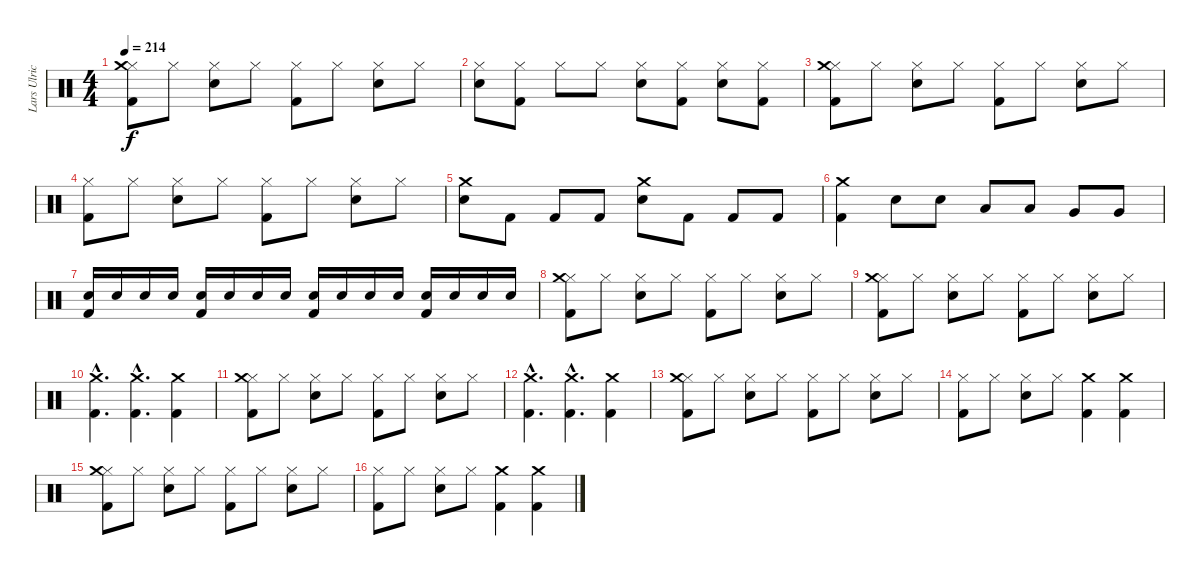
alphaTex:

\track ("Lars Ulrich" "Lars Ulric") {instrument percussion}
\staff {score}
\articulation defaults
\ts (4 4)
\tempo 214
\clef neutral
\ks c
("Hi-Hat (closed)" "Kick (hit) 2" "Crash medium (hit)").8{dy f} "Hi-Hat (closed)".8 ("Hi-Hat (closed)" "Snare (hit) 2").8 "Hi-Hat (closed)".8 ("Hi-Hat (closed)" "Kick (hit) 2").8 "Hi-Hat (closed)".8 ("Hi-Hat (closed)" "Snare (hit) 2").8 "Hi-Hat (closed)".8 |
("Hi-Hat (closed)" "Snare (hit) 2").8 ("Hi-Hat (closed)" "Kick (hit) 2").8 "Hi-Hat (closed)".8 "Hi-Hat (closed)".8 ("Hi-Hat (closed)" "Snare (hit) 2").8 ("Hi-Hat (closed)" "Kick (hit) 2").8 ("Hi-Hat (closed)" "Snare (hit) 2").8 ("Hi-Hat (closed)" "Kick (hit) 2").8 |
("Hi-Hat (closed)" "Kick (hit) 2" "Crash medium (hit)").8 "Hi-Hat (closed)".8 ("Hi-Hat (closed)" "Snare (hit) 2").8 "Hi-Hat (closed)".8 ("Hi-Hat (closed)" "Kick (hit) 2").8 "Hi-Hat (closed)".8 ("Hi-Hat (closed)" "Snare (hit) 2").8 "Hi-Hat (closed)".8 |
("Hi-Hat (closed)" "Kick (hit) 2").8 "Hi-Hat (closed)".8 ("Hi-Hat (closed)" "Snare (hit) 2").8 "Hi-Hat (closed)".8 ("Hi-Hat (closed)" "Kick (hit) 2").8 "Hi-Hat (closed)".8 ("Hi-Hat (closed)" "Snare (hit) 2").8 "Hi-Hat (closed)".8 |
("Snare (hit) 2" "Crash medium (hit)").8 "Kick (hit) 2".8 "Kick (hit) 2".8 "Kick (hit) 2".8 ("Snare (hit) 2" "Crash medium (hit)").8 "Kick (hit) 2".8 "Kick (hit) 2".8 "Kick (hit) 2".8 |
("Kick (hit) 2" "Crash medium (hit)").4 "Snare (hit) 2".8 "Snare (hit) 2".8 "Low Tom (hit)".8 "Low Tom (hit)".8 "Very Low Tom (hit)".8 "Very Low Tom (hit)".8 |
("Snare (hit) 2" "Kick (hit) 2").16{volume 7} "Snare (hit) 2".16 "Snare (hit) 2".16 "Snare (hit) 2".16 ("Snare (hit) 2" "Kick (hit) 2").16{volume 9} "Snare (hit) 2".16 "Snare (hit) 2".16 "Snare (hit) 2".16 ("Snare (hit) 2" "Kick (hit) 2").16{volume 11} "Snare (hit) 2".16 "Snare (hit) 2".16 "Snare (hit) 2".16 ("Snare (hit) 2" "Kick (hit) 2").16{volume 13} "Snare (hit) 2".16 "Snare (hit) 2".16 "Snare (hit) 2".16 |
("Hi-Hat (closed)" "Kick (hit) 2" "Crash medium (hit)").8 "Hi-Hat (closed)".8 ("Hi-Hat (closed)" "Snare (hit) 2").8 "Hi-Hat (closed)".8 ("Hi-Hat (closed)" "Kick (hit) 2").8 "Hi-Hat (closed)".8 ("Hi-Hat (closed)" "Snare (hit) 2").8 "Hi-Hat (closed)".8 |
("Hi-Hat (closed)" "Kick (hit) 2" "Crash medium (hit)").8 "Hi-Hat (closed)".8 ("Hi-Hat (closed)" "Snare (hit) 2").8 "Hi-Hat (closed)".8 ("Hi-Hat (closed)" "Kick (hit) 2").8 "Hi-Hat (closed)".8 ("Hi-Hat (closed)" "Snare (hit) 2").8 "Hi-Hat (closed)".8 |
("Kick (hit) 2"{hac} "Crash medium (hit)"{hac}).4{d} ("Crash medium (hit)"{hac} "Kick (hit) 2"{hac}).4{d} ("Kick (hit) 2" "Crash medium (hit)").4 |
("Hi-Hat (closed)" "Kick (hit) 2" "Crash medium (hit)").8 "Hi-Hat (closed)".8 ("Hi-Hat (closed)" "Snare (hit) 2").8 "Hi-Hat (closed)".8 ("Hi-Hat (closed)" "Kick (hit) 2").8 "Hi-Hat (closed)".8 ("Hi-Hat (closed)" "Snare (hit) 2").8 "Hi-Hat (closed)".8 |
("Kick (hit) 2"{hac} "Crash medium (hit)"{hac}).4{d} ("Crash medium (hit)"{hac} "Kick (hit) 2"{hac}).4{d} ("Kick (hit) 2" "Crash medium (hit)").4 |
("Hi-Hat (closed)" "Kick (hit) 2" "Crash medium (hit)").8 "Hi-Hat (closed)".8 ("Hi-Hat (closed)" "Snare (hit) 2").8 "Hi-Hat (closed)".8 ("Hi-Hat (closed)" "Kick (hit) 2").8 "Hi-Hat (closed)".8 ("Hi-Hat (closed)" "Snare (hit) 2").8 "Hi-Hat (closed)".8 |
("Hi-Hat (closed)" "Kick (hit) 2").8 "Hi-Hat (closed)".8 ("Hi-Hat (closed)" "Snare (hit) 2").8 "Hi-Hat (closed)".8 ("Kick (hit) 2" "Crash medium (hit)").4 ("Kick (hit) 2" "Crash medium (hit)").4 |
("Hi-Hat (closed)" "Kick (hit) 2" "Crash medium (hit)").8 "Hi-Hat (closed)".8 ("Hi-Hat (closed)" "Snare (hit) 2").8 "Hi-Hat (closed)".8 ("Hi-Hat (closed)" "Kick (hit) 2").8 "Hi-Hat (closed)".8 ("Hi-Hat (closed)" "Snare (hit) 2").8 "Hi-Hat (closed)".8 |
("Hi-Hat (closed)" "Kick (hit) 2").8 "Hi-Hat (closed)".8 ("Hi-Hat (closed)" "Snare (hit) 2").8 "Hi-Hat (closed)".8 ("Kick (hit) 2" "Crash medium (hit)").4 ("Kick (hit) 2" "Crash medium (hit)").4
